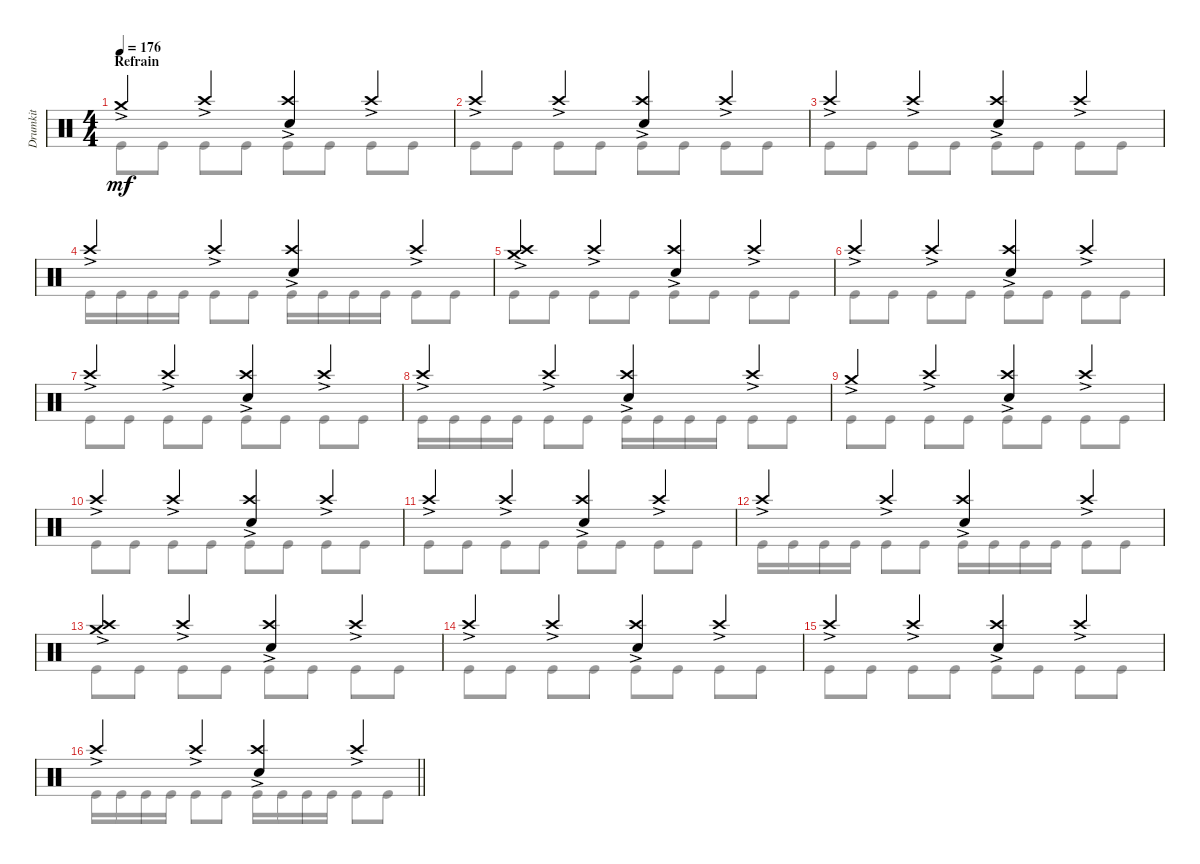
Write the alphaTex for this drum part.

\track ("Drumkit" "Drumkit") {instrument percussion}
\staff {score}
\articulation defaults
\voice
\ts (4 4)
\section ("" "Refrain")
\tempo 176
\clef neutral
\ks c "Crash medium (hit)"{ac}.4{dy mf} "Crash high (hit)"{ac}.4
("Crash high (hit)"{ac} "Snare (hit) 2").4 "Crash high (hit)"{ac}.4 |
"Crash high (hit)"{ac}.4 "Crash high (hit)"{ac}.4 ("Crash high (hit)"{ac} "Snare (hit) 2").4 "Crash high (hit)"{ac}.4 |
"Crash high (hit)"{ac}.4 "Crash high (hit)"{ac}.4 ("Crash high (hit)"{ac} "Snare (hit) 2").4 "Crash high (hit)"{ac}.4 |
"Crash high (hit)"{ac}.4 "Crash high (hit)"{ac}.4 ("Crash high (hit)"{ac} "Snare (hit) 2").4 "Crash high (hit)"{ac}.4 |
("Crash medium (hit)"{ac} "Crash high (hit)"{ac}).4 "Crash high (hit)"{ac}.4 ("Crash high (hit)"{ac} "Snare (hit) 2").4 "Crash high (hit)"{ac}.4 |
"Crash high (hit)"{ac}.4 "Crash high (hit)"{ac}.4 ("Crash high (hit)"{ac} "Snare (hit) 2").4 "Crash high (hit)"{ac}.4 |
"Crash high (hit)"{ac}.4 "Crash high (hit)"{ac}.4 ("Crash high (hit)"{ac} "Snare (hit) 2").4 "Crash high (hit)"{ac}.4 |
"Crash high (hit)"{ac}.4 "Crash high (hit)"{ac}.4 ("Crash high (hit)"{ac} "Snare (hit) 2").4 "Crash high (hit)"{ac}.4 |
"Crash medium (hit)"{ac}.4 "Crash high (hit)"{ac}.4 ("Crash high (hit)"{ac} "Snare (hit) 2").4 "Crash high (hit)"{ac}.4 |
"Crash high (hit)"{ac}.4 "Crash high (hit)"{ac}.4 ("Crash high (hit)"{ac} "Snare (hit) 2").4 "Crash high (hit)"{ac}.4 |
"Crash high (hit)"{ac}.4 "Crash high (hit)"{ac}.4 ("Crash high (hit)"{ac} "Snare (hit) 2").4 "Crash high (hit)"{ac}.4 |
"Crash high (hit)"{ac}.4 "Crash high (hit)"{ac}.4 ("Crash high (hit)"{ac} "Snare (hit) 2").4 "Crash high (hit)"{ac}.4 |
("Crash medium (hit)"{ac} "Crash high (hit)"{ac}).4 "Crash high (hit)"{ac}.4 ("Crash high (hit)"{ac} "Snare (hit) 2").4 "Crash high (hit)"{ac}.4 |
"Crash high (hit)"{ac}.4 "Crash high (hit)"{ac}.4 ("Crash high (hit)"{ac} "Snare (hit) 2").4 "Crash high (hit)"{ac}.4 |
"Crash high (hit)"{ac}.4 "Crash high (hit)"{ac}.4 ("Crash high (hit)"{ac} "Snare (hit) 2").4 "Crash high (hit)"{ac}.4 |
\barLineRight lightlight "Crash high (hit)"{ac}.4 "Crash high (hit)"{ac}.4
("Crash high (hit)"{ac} "Snare (hit) 2").4 "Crash high (hit)"{ac}.4
\voice
\clef neutral
\ottava regular
\simile none
\ks c "Kick (hit)".8{dy mf} "Kick (hit)".8 "Kick (hit)".8 "Kick (hit)".8 "Kick (hit)".8 "Kick (hit)".8 "Kick (hit)".8 "Kick (hit)".8
|
"Kick (hit)".8 "Kick (hit)".8 "Kick (hit)".8 "Kick (hit)".8 "Kick (hit)".8 "Kick (hit)".8 "Kick (hit)".8 "Kick (hit)".8 |
"Kick (hit)".8 "Kick (hit)".8 "Kick (hit)".8 "Kick (hit)".8 "Kick (hit)".8 "Kick (hit)".8 "Kick (hit)".8 "Kick (hit)".8 |
"Kick (hit)".16 "Kick (hit)".16 "Kick (hit)".16 "Kick (hit)".16 "Kick (hit)".8 "Kick (hit)".8 "Kick (hit)".16 "Kick (hit)".16 "Kick (hit)".16 "Kick (hit)".16 "Kick (hit)".8 "Kick (hit)".8 |
"Kick (hit)".8 "Kick (hit)".8 "Kick (hit)".8 "Kick (hit)".8 "Kick (hit)".8 "Kick (hit)".8 "Kick (hit)".8 "Kick (hit)".8 |
"Kick (hit)".8 "Kick (hit)".8 "Kick (hit)".8 "Kick (hit)".8 "Kick (hit)".8 "Kick (hit)".8 "Kick (hit)".8 "Kick (hit)".8 |
"Kick (hit)".8 "Kick (hit)".8 "Kick (hit)".8 "Kick (hit)".8 "Kick (hit)".8 "Kick (hit)".8 "Kick (hit)".8 "Kick (hit)".8 |
"Kick (hit)".16 "Kick (hit)".16 "Kick (hit)".16 "Kick (hit)".16 "Kick (hit)".8 "Kick (hit)".8 "Kick (hit)".16 "Kick (hit)".16 "Kick (hit)".16 "Kick (hit)".16 "Kick (hit)".8 "Kick (hit)".8 |
"Kick (hit)".8 "Kick (hit)".8 "Kick (hit)".8 "Kick (hit)".8 "Kick (hit)".8 "Kick (hit)".8 "Kick (hit)".8 "Kick (hit)".8 |
"Kick (hit)".8 "Kick (hit)".8 "Kick (hit)".8 "Kick (hit)".8 "Kick (hit)".8 "Kick (hit)".8 "Kick (hit)".8 "Kick (hit)".8 |
"Kick (hit)".8 "Kick (hit)".8 "Kick (hit)".8 "Kick (hit)".8 "Kick (hit)".8 "Kick (hit)".8 "Kick (hit)".8 "Kick (hit)".8 |
"Kick (hit)".16 "Kick (hit)".16 "Kick (hit)".16 "Kick (hit)".16 "Kick (hit)".8 "Kick (hit)".8 "Kick (hit)".16 "Kick (hit)".16 "Kick (hit)".16 "Kick (hit)".16 "Kick (hit)".8 "Kick (hit)".8 |
"Kick (hit)".8 "Kick (hit)".8 "Kick (hit)".8 "Kick (hit)".8 "Kick (hit)".8 "Kick (hit)".8 "Kick (hit)".8 "Kick (hit)".8 |
"Kick (hit)".8 "Kick (hit)".8 "Kick (hit)".8 "Kick (hit)".8 "Kick (hit)".8 "Kick (hit)".8 "Kick (hit)".8 "Kick (hit)".8 |
"Kick (hit)".8 "Kick (hit)".8 "Kick (hit)".8 "Kick (hit)".8 "Kick (hit)".8 "Kick (hit)".8 "Kick (hit)".8 "Kick (hit)".8 |
\barLineRight lightlight "Kick (hit)".16 "Kick (hit)".16 "Kick (hit)".16 "Kick (hit)".16 "Kick (hit)".8 "Kick (hit)".8 "Kick (hit)".16 "Kick (hit)".16 "Kick (hit)".16 "Kick (hit)".16 "Kick (hit)".8 "Kick (hit)".8
